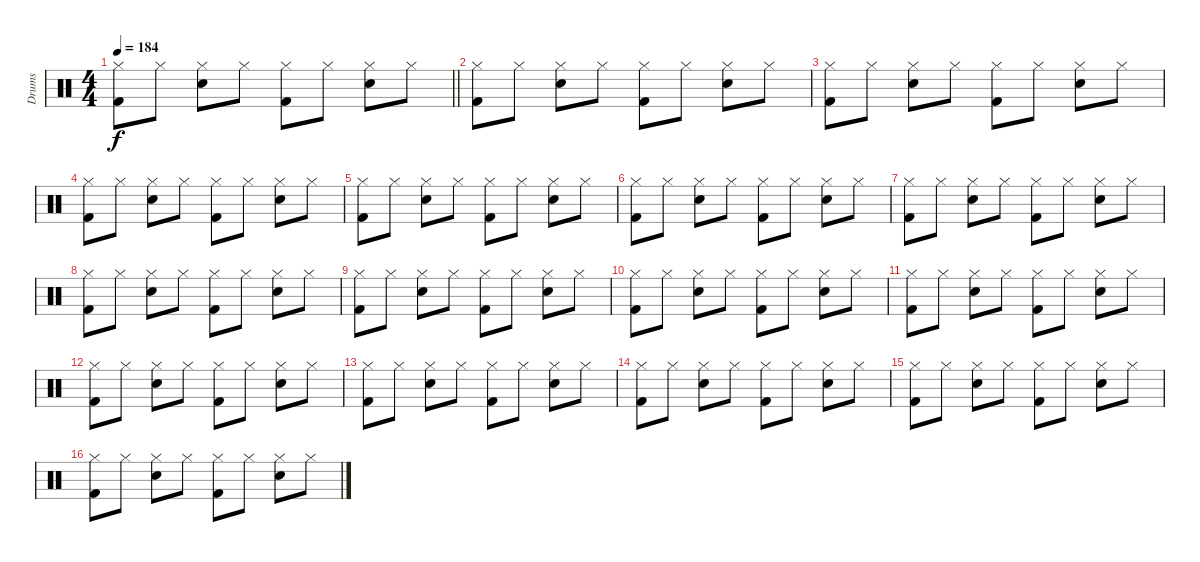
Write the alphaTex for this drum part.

\track ("Drums" "Drums") {instrument percussion}
\staff {score}
\articulation defaults
\ts (4 4)
\tempo 184
\clef neutral
\barLineRight lightlight
\ks c
("Hi-Hat (closed)" "Kick (hit) 2").8{dy f} "Hi-Hat (closed)".8 ("Hi-Hat (closed)" "Snare (hit) 2").8 "Hi-Hat (closed)".8 ("Hi-Hat (closed)" "Kick (hit) 2").8 "Hi-Hat (closed)".8 ("Hi-Hat (closed)" "Snare (hit) 2").8 "Hi-Hat (closed)".8 |
("Hi-Hat (closed)" "Kick (hit) 2").8 "Hi-Hat (closed)".8 ("Hi-Hat (closed)" "Snare (hit) 2").8 "Hi-Hat (closed)".8 ("Hi-Hat (closed)" "Kick (hit) 2").8 "Hi-Hat (closed)".8 ("Hi-Hat (closed)" "Snare (hit) 2").8 "Hi-Hat (closed)".8 |
("Hi-Hat (closed)" "Kick (hit) 2").8 "Hi-Hat (closed)".8 ("Hi-Hat (closed)" "Snare (hit) 2").8 "Hi-Hat (closed)".8 ("Hi-Hat (closed)" "Kick (hit) 2").8 "Hi-Hat (closed)".8 ("Hi-Hat (closed)" "Snare (hit) 2").8 "Hi-Hat (closed)".8 |
("Hi-Hat (closed)" "Kick (hit) 2").8 "Hi-Hat (closed)".8 ("Hi-Hat (closed)" "Snare (hit) 2").8 "Hi-Hat (closed)".8 ("Hi-Hat (closed)" "Kick (hit) 2").8 "Hi-Hat (closed)".8 ("Hi-Hat (closed)" "Snare (hit) 2").8 "Hi-Hat (closed)".8 |
("Hi-Hat (closed)" "Kick (hit) 2").8 "Hi-Hat (closed)".8 ("Hi-Hat (closed)" "Snare (hit) 2").8 "Hi-Hat (closed)".8 ("Hi-Hat (closed)" "Kick (hit) 2").8 "Hi-Hat (closed)".8 ("Hi-Hat (closed)" "Snare (hit) 2").8 "Hi-Hat (closed)".8 |
("Hi-Hat (closed)" "Kick (hit) 2").8 "Hi-Hat (closed)".8 ("Hi-Hat (closed)" "Snare (hit) 2").8 "Hi-Hat (closed)".8 ("Hi-Hat (closed)" "Kick (hit) 2").8 "Hi-Hat (closed)".8 ("Hi-Hat (closed)" "Snare (hit) 2").8 "Hi-Hat (closed)".8 |
("Hi-Hat (closed)" "Kick (hit) 2").8 "Hi-Hat (closed)".8 ("Hi-Hat (closed)" "Snare (hit) 2").8 "Hi-Hat (closed)".8 ("Hi-Hat (closed)" "Kick (hit) 2").8 "Hi-Hat (closed)".8 ("Hi-Hat (closed)" "Snare (hit) 2").8 "Hi-Hat (closed)".8 |
("Hi-Hat (closed)" "Kick (hit) 2").8 "Hi-Hat (closed)".8 ("Hi-Hat (closed)" "Snare (hit) 2").8 "Hi-Hat (closed)".8 ("Hi-Hat (closed)" "Kick (hit) 2").8 "Hi-Hat (closed)".8 ("Hi-Hat (closed)" "Snare (hit) 2").8 "Hi-Hat (closed)".8 |
("Hi-Hat (closed)" "Kick (hit) 2").8 "Hi-Hat (closed)".8 ("Hi-Hat (closed)" "Snare (hit) 2").8 "Hi-Hat (closed)".8 ("Hi-Hat (closed)" "Kick (hit) 2").8 "Hi-Hat (closed)".8 ("Hi-Hat (closed)" "Snare (hit) 2").8 "Hi-Hat (closed)".8 |
("Hi-Hat (closed)" "Kick (hit) 2").8 "Hi-Hat (closed)".8 ("Hi-Hat (closed)" "Snare (hit) 2").8 "Hi-Hat (closed)".8 ("Hi-Hat (closed)" "Kick (hit) 2").8 "Hi-Hat (closed)".8 ("Hi-Hat (closed)" "Snare (hit) 2").8 "Hi-Hat (closed)".8 |
("Hi-Hat (closed)" "Kick (hit) 2").8 "Hi-Hat (closed)".8 ("Hi-Hat (closed)" "Snare (hit) 2").8 "Hi-Hat (closed)".8 ("Hi-Hat (closed)" "Kick (hit) 2").8 "Hi-Hat (closed)".8 ("Hi-Hat (closed)" "Snare (hit) 2").8 "Hi-Hat (closed)".8 |
("Hi-Hat (closed)" "Kick (hit) 2").8 "Hi-Hat (closed)".8 ("Hi-Hat (closed)" "Snare (hit) 2").8 "Hi-Hat (closed)".8 ("Hi-Hat (closed)" "Kick (hit) 2").8 "Hi-Hat (closed)".8 ("Hi-Hat (closed)" "Snare (hit) 2").8 "Hi-Hat (closed)".8 |
("Hi-Hat (closed)" "Kick (hit) 2").8 "Hi-Hat (closed)".8 ("Hi-Hat (closed)" "Snare (hit) 2").8 "Hi-Hat (closed)".8 ("Hi-Hat (closed)" "Kick (hit) 2").8 "Hi-Hat (closed)".8 ("Hi-Hat (closed)" "Snare (hit) 2").8 "Hi-Hat (closed)".8 |
("Hi-Hat (closed)" "Kick (hit) 2").8 "Hi-Hat (closed)".8 ("Hi-Hat (closed)" "Snare (hit) 2").8 "Hi-Hat (closed)".8 ("Hi-Hat (closed)" "Kick (hit) 2").8 "Hi-Hat (closed)".8 ("Hi-Hat (closed)" "Snare (hit) 2").8 "Hi-Hat (closed)".8 |
("Hi-Hat (closed)" "Kick (hit) 2").8 "Hi-Hat (closed)".8 ("Hi-Hat (closed)" "Snare (hit) 2").8 "Hi-Hat (closed)".8 ("Hi-Hat (closed)" "Kick (hit) 2").8 "Hi-Hat (closed)".8 ("Hi-Hat (closed)" "Snare (hit) 2").8 "Hi-Hat (closed)".8 |
("Hi-Hat (closed)" "Kick (hit) 2").8 "Hi-Hat (closed)".8 ("Hi-Hat (closed)" "Snare (hit) 2").8 "Hi-Hat (closed)".8 ("Hi-Hat (closed)" "Kick (hit) 2").8 "Hi-Hat (closed)".8 ("Hi-Hat (closed)" "Snare (hit) 2").8 "Hi-Hat (closed)".8
